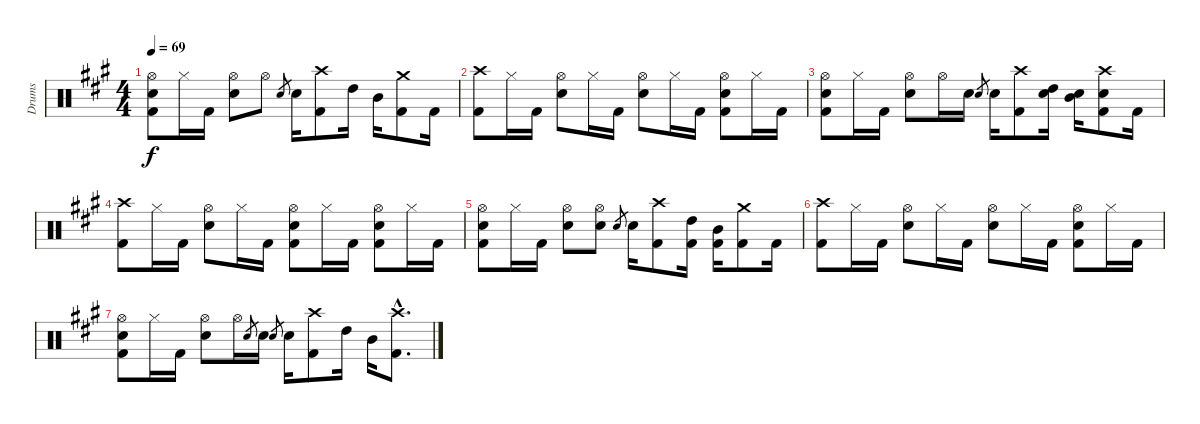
\track ("Drums" "Drums") {instrument percussion}
\staff {score}
\articulation defaults
\ts (4 4)
\tempo 69
\clef neutral
\ks f#minor
("Hi-Hat (open)" "Snare (hit) 2" "Kick (hit) 2").8{dy f} "Hi-Hat (closed)".16 "Kick (hit) 2".16 ("Hi-Hat (open)" "Snare (hit) 2").8 "Hi-Hat (open)".8 "Snare (hit) 2".8{gr} "Snare (hit) 2".16 ("Crash high (hit)" "Kick (hit) 2").8 "High Tom (hit)".16 "Mid Tom (hit)".16 ("Crash medium (hit)" "Kick (hit) 2").8 "Kick (hit) 2".16 |
("Crash high (hit)" "Kick (hit) 2").8 "Hi-Hat (closed)".16 "Kick (hit) 2".16 ("Hi-Hat (open)" "Snare (hit) 2").8 "Hi-Hat (closed)".16 "Kick (hit) 2".16 ("Hi-Hat (open)" "Snare (hit) 2").8 "Hi-Hat (closed)".16 "Kick (hit) 2".16 ("Hi-Hat (open)" "Snare (hit) 2" "Kick (hit) 2").8 "Hi-Hat (closed)".16 "Kick (hit) 2".16 |
("Hi-Hat (open)" "Snare (hit) 2" "Kick (hit) 2").8 "Hi-Hat (closed)".16 "Kick (hit) 2".16 ("Hi-Hat (open)" "Snare (hit) 2").8 "Hi-Hat (open)".16 "Snare (hit) 2".16 "Snare (hit) 2".8{gr} "Snare (hit) 2".16 ("Crash high (hit)" "Kick (hit) 2").8 ("High Tom (hit)" "Snare (hit) 2").16 ("Mid Tom (hit)" "Snare (hit) 2").16 ("Crash high (hit)" "Snare (hit) 2" "Kick (hit) 2").8 "Kick (hit) 2".16 |
("Crash high (hit)" "Kick (hit) 2").8 "Hi-Hat (closed)".16 "Kick (hit) 2".16 ("Hi-Hat (open)" "Snare (hit) 2").8 "Hi-Hat (closed)".16 "Kick (hit) 2".16 ("Hi-Hat (open)" "Snare (hit) 2" "Kick (hit) 2").8 "Hi-Hat (closed)".16 "Kick (hit) 2".16 ("Hi-Hat (open)" "Snare (hit) 2" "Kick (hit) 2").8 "Hi-Hat (closed)".16 "Kick (hit) 2".16 |
("Hi-Hat (open)" "Snare (hit) 2" "Kick (hit) 2").8 "Hi-Hat (closed)".16 "Kick (hit) 2".16 ("Hi-Hat (open)" "Snare (hit) 2").8 ("Hi-Hat (open)" "Snare (hit) 2").8 "Snare (hit) 2".8{gr} "Snare (hit) 2".16 ("Crash high (hit)" "Kick (hit) 2").8 ("High Tom (hit)" "Kick (hit) 2").16 ("Mid Tom (hit)" "Kick (hit) 2").16 ("Crash medium (hit)" "Kick (hit) 2").8 "Kick (hit) 2".16 |
("Crash high (hit)" "Kick (hit) 2").8 "Hi-Hat (closed)".16 "Kick (hit) 2".16 ("Hi-Hat (open)" "Snare (hit) 2").8 "Hi-Hat (closed)".16 "Kick (hit) 2".16 ("Hi-Hat (open)" "Snare (hit) 2").8 "Hi-Hat (closed)".16 "Kick (hit) 2".16 ("Hi-Hat (open)" "Snare (hit) 2" "Kick (hit) 2").8 "Hi-Hat (closed)".16 "Kick (hit) 2".16 |
("Hi-Hat (open)" "Snare (hit) 2" "Kick (hit) 2").8 "Hi-Hat (closed)".16 "Kick (hit) 2".16 ("Hi-Hat (open)" "Snare (hit) 2").8 "Hi-Hat (open)".16 "Snare (hit) 2".8{gr} "Snare (hit) 2".16 "Snare (hit) 2".8{gr} "Snare (hit) 2".16 ("Crash high (hit)" "Kick (hit) 2").8 "High Tom (hit)".16 "Mid Tom (hit)".16 ("Crash high (hit)"{hac} "Kick (hit) 2"{hac}).8{d}
